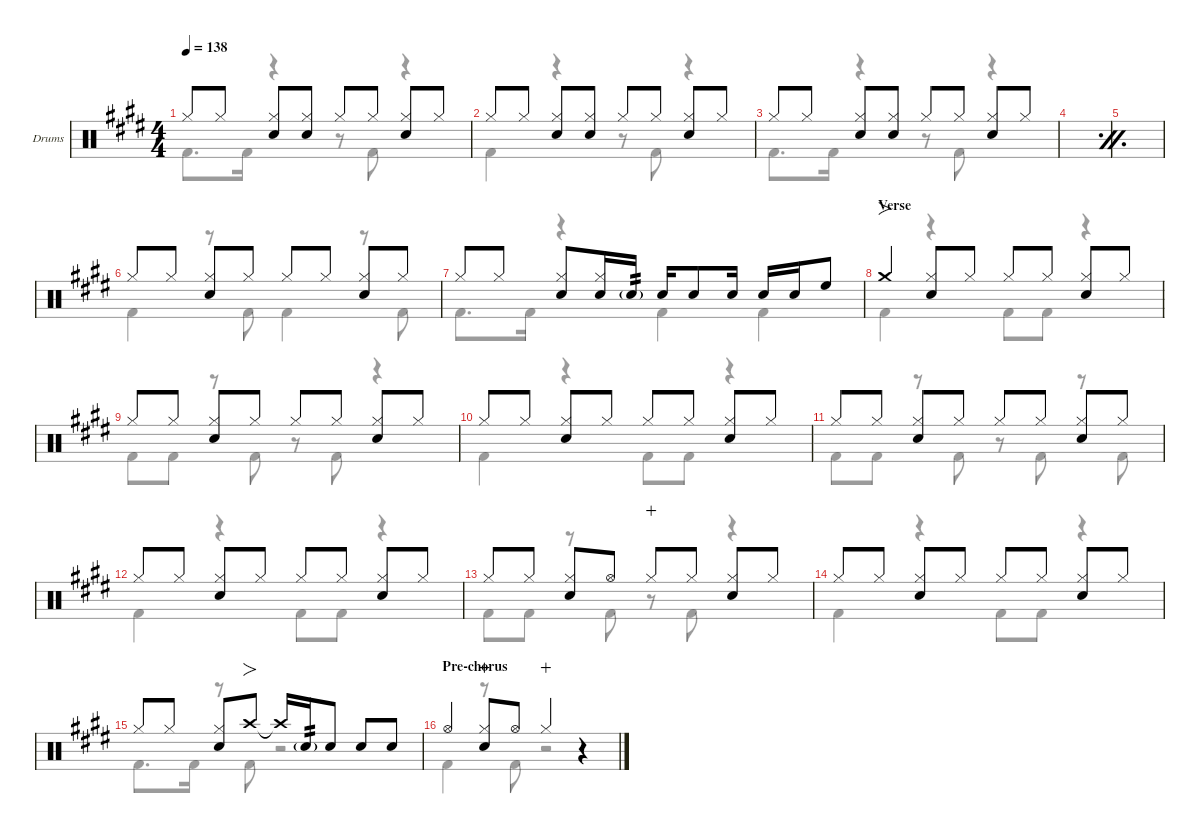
\defaultSystemsLayout 4
\hideDynamics
\bracketExtendMode nobrackets
\firstSystemTrackNameOrientation horizontal
\track ("Drums" "Drums") {defaultSystemsLayout 4 instrument percussion}
\staff {score}
\articulation defaults
\voice
\ts (4 4)
\tempo 138
\clef neutral
\scale
0.244461
\ks c#minor "Hi-Hat (closed)"{acc forcenatural}.8{dy f beam Up} "Hi-Hat (closed)"{acc forcenatural}.8{dy mp beam Up}
("Hi-Hat (closed)"{acc forcenatural} "Snare (hit) 2"{acc forcenatural}).8{dy f beam Up} ("Hi-Hat (closed)"{acc forcenatural} "Snare (hit) 2"{acc forcenatural}).8{beam Up} "Hi-Hat (closed)"{acc forcenatural}.8{beam Up} "Hi-Hat (closed)"{acc forcenatural}.8{dy mp beam Up} ("Hi-Hat (closed)"{acc forcenatural} "Snare (hit) 2"{acc forcenatural}).8{dy f beam Up} "Hi-Hat (closed)"{acc forcenatural}.8{dy mp beam Up} |
\scale
0.244461 "Hi-Hat (closed)"{acc forcenatural}.8{dy f beam Up} "Hi-Hat (closed)"{acc forcenatural}.8{dy mp beam Up} ("Hi-Hat (closed)"{acc forcenatural} "Snare (hit) 2"{acc forcenatural}).8{dy f beam Up} ("Hi-Hat (closed)"{acc forcenatural} "Snare (hit) 2"{acc forcenatural}).8{beam Up} "Hi-Hat (closed)"{acc forcenatural}.8{beam Up} "Hi-Hat (closed)"{acc forcenatural}.8{dy mp beam Up} ("Hi-Hat (closed)"{acc forcenatural} "Snare (hit) 2"{acc forcenatural}).8{dy f beam Up} "Hi-Hat (closed)"{acc forcenatural}.8{dy mp beam Up} |
\scale
0.244461 "Hi-Hat (closed)"{acc forcenatural}.8{dy f beam Up} "Hi-Hat (closed)"{acc forcenatural}.8{dy mp beam Up} ("Hi-Hat (closed)"{acc forcenatural} "Snare (hit) 2"{acc forcenatural}).8{dy f beam Up} ("Hi-Hat (closed)"{acc forcenatural} "Snare (hit) 2"{acc forcenatural}).8{beam Up} "Hi-Hat (closed)"{acc forcenatural}.8{beam Up} "Hi-Hat (closed)"{acc forcenatural}.8{dy mp beam Up} ("Hi-Hat (closed)"{acc forcenatural} "Snare (hit) 2"{acc forcenatural}).8{dy f beam Up} "Hi-Hat (closed)"{acc forcenatural}.8{dy mp beam Up} |
\simile firstofdouble
\scale
0.266618 |
\simile secondofdouble
\scale
0.244461 |
\simile none
\scale
0.244461 "Hi-Hat (closed)"{acc forcenatural}.8{dy f beam Up} "Hi-Hat (closed)"{acc forcenatural}.8{dy mp beam Up} ("Hi-Hat (closed)"{acc forcenatural} "Snare (hit) 2"{acc forcenatural}).8{dy f beam Up} "Hi-Hat (closed)"{acc forcenatural}.8{dy mp beam Up} "Hi-Hat (closed)"{acc forcenatural}.8{dy f beam Up} "Hi-Hat (closed)"{acc forcenatural}.8{dy mp beam Up} ("Hi-Hat (closed)"{acc forcenatural} "Snare (hit) 2"{acc forcenatural}).8{dy f beam Up} "Hi-Hat (closed)"{acc forcenatural}.8{dy mp beam Up} |
\scale
0.244461 "Hi-Hat (closed)"{acc forcenatural}.8{dy f beam Up} "Hi-Hat (closed)"{acc forcenatural}.8{dy mp beam Up beam split} ("Hi-Hat (closed)"{acc forcenatural} "Snare (hit) 2"{acc forcenatural}).8{dy f beam Up} ("Hi-Hat (closed)"{acc forcenatural} "Snare (hit) 2"{acc forcenatural}).16{beam Up} "Snare (hit) 2"{g acc forcenatural}.16{tp 2 dy mf beam Up} "Snare (hit) 2"{acc forcenatural}.16{dy f beam Up} "Snare (hit) 2"{acc forcenatural}.8{dy mf beam Up} "Snare (hit) 2"{acc forcenatural}.16{beam Up beam split} "Snare (hit) 2"{acc forcenatural}.16{dy f beam Up} "Snare (hit) 2"{acc forcenatural}.16{dy mf beam Up} "High Floor Tom (hit)"{acc forcenatural}.8{dy f beam Up} |
\section ("" "Verse")
\scale
0.266618 "Crash medium (hit)"{acc forcenatural}.4{fo beam Up} ("Hi-Hat (closed)"{acc forcenatural} "Snare (hit) 2"{acc forcenatural}).8{beam Up} "Hi-Hat (closed)"{acc forcenatural}.8{beam Up} "Hi-Hat (closed)"{acc forcenatural}.8{beam Up} "Hi-Hat (closed)"{acc forcenatural}.8{dy mp beam Up} ("Hi-Hat (closed)"{acc forcenatural} "Snare (hit) 2"{acc forcenatural}).8{dy f beam Up} "Hi-Hat (closed)"{acc forcenatural}.8{dy mp beam Up} |
\scale
0.244461 "Hi-Hat (closed)"{acc forcenatural}.8{dy f beam Up} "Hi-Hat (closed)"{acc forcenatural}.8{dy mp beam Up} ("Hi-Hat (closed)"{acc forcenatural} "Snare (hit) 2"{acc forcenatural}).8{dy f beam Up} "Hi-Hat (closed)"{acc forcenatural}.8{dy mp beam Up} "Hi-Hat (closed)"{acc forcenatural}.8{dy f beam Up} "Hi-Hat (closed)"{acc forcenatural}.8{dy mp beam Up} ("Hi-Hat (closed)"{acc forcenatural} "Snare (hit) 2"{acc forcenatural}).8{dy f beam Up} "Hi-Hat (closed)"{acc forcenatural}.8{dy mp beam Up} |
\scale
0.244461 "Hi-Hat (closed)"{acc forcenatural}.8{dy f beam Up} "Hi-Hat (closed)"{acc forcenatural}.8{dy mp beam Up} ("Hi-Hat (closed)"{acc forcenatural} "Snare (hit) 2"{acc forcenatural}).8{dy f beam Up} "Hi-Hat (closed)"{acc forcenatural}.8{dy mp beam Up} "Hi-Hat (closed)"{acc forcenatural}.8{dy f beam Up} "Hi-Hat (closed)"{acc forcenatural}.8{dy mp beam Up} ("Hi-Hat (closed)"{acc forcenatural} "Snare (hit) 2"{acc forcenatural}).8{dy f beam Up} "Hi-Hat (closed)"{acc forcenatural}.8{dy mp beam Up} |
\scale
0.244461 "Hi-Hat (closed)"{acc forcenatural}.8{dy f beam Up} "Hi-Hat (closed)"{acc forcenatural}.8{dy mp beam Up} ("Hi-Hat (closed)"{acc forcenatural} "Snare (hit) 2"{acc forcenatural}).8{dy f beam Up} "Hi-Hat (closed)"{acc forcenatural}.8{dy mp beam Up} "Hi-Hat (closed)"{acc forcenatural}.8{dy f beam Up} "Hi-Hat (closed)"{acc forcenatural}.8{dy mp beam Up} ("Hi-Hat (closed)"{acc forcenatural} "Snare (hit) 2"{acc forcenatural}).8{dy f beam Up} "Hi-Hat (closed)"{acc forcenatural}.8{dy mp beam Up} |
\scale
0.266618 "Hi-Hat (closed)"{acc forcenatural}.8{dy f beam Up} "Hi-Hat (closed)"{acc forcenatural}.8{dy mp beam Up} ("Hi-Hat (closed)"{acc forcenatural} "Snare (hit) 2"{acc forcenatural}).8{dy f beam Up} "Hi-Hat (closed)"{acc forcenatural}.8{dy mp beam Up} "Hi-Hat (closed)"{acc forcenatural}.8{dy f beam Up} "Hi-Hat (closed)"{acc forcenatural}.8{dy mp beam Up} ("Hi-Hat (closed)"{acc forcenatural} "Snare (hit) 2"{acc forcenatural}).8{dy f beam Up} "Hi-Hat (closed)"{acc forcenatural}.8{dy mp beam Up} |
\scale
0.244461 "Hi-Hat (closed)"{acc forcenatural}.8{dy f beam Up} "Hi-Hat (closed)"{acc forcenatural}.8{dy mp beam Up} ("Hi-Hat (closed)"{acc forcenatural} "Snare (hit) 2"{acc forcenatural}).8{dy f beam Up} "Hi-Hat (open)"{acc forcenatural}.8{beam Up} "Hi-Hat (closed)"{acc forcenatural}.8{dy mp wahc beam Up} "Hi-Hat (closed)"{acc forcenatural}.8{beam Up} ("Hi-Hat (closed)"{acc forcenatural} "Snare (hit) 2"{acc forcenatural}).8{dy f beam Up} "Hi-Hat (closed)"{acc forcenatural}.8{dy mp beam Up} |
\scale
0.244461 "Hi-Hat (closed)"{acc forcenatural}.8{dy f beam Up} "Hi-Hat (closed)"{acc forcenatural}.8{dy mp beam Up} ("Hi-Hat (closed)"{acc forcenatural} "Snare (hit) 2"{acc forcenatural}).8{dy f beam Up} "Hi-Hat (closed)"{acc forcenatural}.8{dy mp beam Up} "Hi-Hat (closed)"{acc forcenatural}.8{dy f beam Up} "Hi-Hat (closed)"{acc forcenatural}.8{dy mp beam Up} ("Hi-Hat (closed)"{acc forcenatural} "Snare (hit) 2"{acc forcenatural}).8{dy f beam Up} "Hi-Hat (closed)"{acc forcenatural}.8{dy mp beam Up} |
\scale
0.244461 "Hi-Hat (closed)"{acc forcenatural}.8{dy f beam Up} "Hi-Hat (closed)"{acc forcenatural}.8{dy mp beam Up} ("Hi-Hat (closed)"{acc forcenatural} "Snare (hit) 2"{acc forcenatural}).8{dy f beam Up} "Crash high (hit)"{acc forcenatural}.8{fo beam Up} "Crash high (hit)"{t acc forcenatural}.16{beam Up} "Snare (hit) 2"{g acc forcenatural}.16{tp 2 dy mf beam Up} "Snare (hit) 2"{acc forcenatural}.8{dy f beam Up beam split} "Snare (hit) 2"{acc forcenatural}.8{beam Up} "Snare (hit) 2"{acc forcenatural}.8{dy mf beam Up} |
\section ("" "Pre-chorus")
\scale
0.266618 "Hi-Hat (open)"{acc forcenatural}.4{dy f beam Up} ("Snare (hit) 2"{acc forcenatural} "Hi-Hat (closed)"{acc forcenatural}).8{wahc beam Up} "Hi-Hat (open)"{acc forcenatural}.8{beam Up} "Hi-Hat (closed)"{acc forcenatural}.4{dy p wahc beam Up} r.4{beam Up}
\voice
\clef neutral
\ottava regular
\simile none
\scale
0.244461
\ks c#minor "Kick (hit) 2"{acc forcenatural}.8{d dy f beam Down} "Kick (hit) 2"{acc forcenatural}.16{beam Down}
r.4{beam Down} r.8{beam Down} "Kick (hit) 2"{acc forcenatural}.8{beam Down} r.4{beam Down} |
\scale
0.244461 "Kick (hit) 2"{acc forcenatural}.4{beam Down} r.4{beam Down} r.8{beam Down} "Kick (hit) 2"{acc forcenatural}.8{beam Down} r.4{beam Down} |
\scale
0.244461 "Kick (hit) 2"{acc forcenatural}.8{d beam Down} "Kick (hit) 2"{acc forcenatural}.16{beam Down} r.4{beam Down} r.8{beam Down} "Kick (hit) 2"{acc forcenatural}.8{beam Down} r.4{beam Down} |
\simile firstofdouble
\scale
0.266618 |
\simile secondofdouble
\scale
0.244461 |
\simile none
\scale
0.244461 "Kick (hit) 2"{acc forcenatural}.4{beam Down} r.8{beam Down} "Kick (hit) 2"{acc forcenatural}.8{beam Down} "Kick (hit) 2"{acc forcenatural}.4{beam Down} r.8{beam Down} "Kick (hit) 2"{acc forcenatural}.8{beam Down} |
\scale
0.244461 "Kick (hit) 2"{acc forcenatural}.8{d beam Down} "Kick (hit) 2"{acc forcenatural}.16{beam Down} r.4{beam Down} "Kick (hit) 2"{acc forcenatural}.4{beam Down} "Kick (hit) 2"{acc forcenatural}.4{beam Down} |
\scale
0.266618 "Kick (hit) 2"{acc forcenatural}.4{beam Down} r.4{beam Down} "Kick (hit) 2"{acc forcenatural}.8{beam Down} "Kick (hit) 2"{acc forcenatural}.8{beam Down} r.4{beam Down} |
\scale
0.244461 "Kick (hit) 2"{acc forcenatural}.8{beam Down} "Kick (hit) 2"{acc forcenatural}.8{beam Down} r.8{beam Down} "Kick (hit) 2"{acc forcenatural}.8{beam Down} r.8{beam Down} "Kick (hit) 2"{acc forcenatural}.8{beam Down} r.4{beam Down} |
\scale
0.244461 "Kick (hit) 2"{acc forcenatural}.4{beam Down} r.4{beam Down} "Kick (hit) 2"{acc forcenatural}.8{beam Down} "Kick (hit) 2"{acc forcenatural}.8{beam Down} r.4{beam Down} |
\scale
0.244461 "Kick (hit) 2"{acc forcenatural}.8{beam Down} "Kick (hit) 2"{acc forcenatural}.8{beam Down} r.8{beam Down} "Kick (hit) 2"{acc forcenatural}.8{beam Down} r.8{beam Down} "Kick (hit) 2"{acc forcenatural}.8{beam Down} r.8{beam Down} "Kick (hit) 2"{acc forcenatural}.8{beam Down} |
\scale
0.266618 "Kick (hit) 2"{acc forcenatural}.4{beam Down} r.4{beam Down} "Kick (hit) 2"{acc forcenatural}.8{beam Down} "Kick (hit) 2"{acc forcenatural}.8{beam Down} r.4{beam Down} |
\scale
0.244461 "Kick (hit) 2"{acc forcenatural}.8{beam Down} "Kick (hit) 2"{acc forcenatural}.8{beam Down} r.8{beam Down} "Kick (hit) 2"{acc forcenatural}.8{beam Down} r.8{beam Down} "Kick (hit) 2"{acc forcenatural}.8{beam Down} r.4{beam Down} |
\scale
0.244461 "Kick (hit) 2"{acc forcenatural}.4{beam Down} r.4{beam Down} "Kick (hit) 2"{acc forcenatural}.8{beam Down} "Kick (hit) 2"{acc forcenatural}.8{beam Down} r.4{beam Down} |
\scale
0.244461 "Kick (hit) 2"{acc forcenatural}.8{d beam Down} "Kick (hit) 2"{acc forcenatural}.16{beam Down beam split} r.8{beam Down beam split} "Kick (hit) 2"{acc forcenatural}.8{beam Down} r.2{beam Down} |
\scale
0.266618 "Kick (hit) 2"{acc forcenatural}.4{beam Down} r.8{beam Down} "Kick (hit) 2"{acc forcenatural}.8{beam Down} r.2{beam Down}
